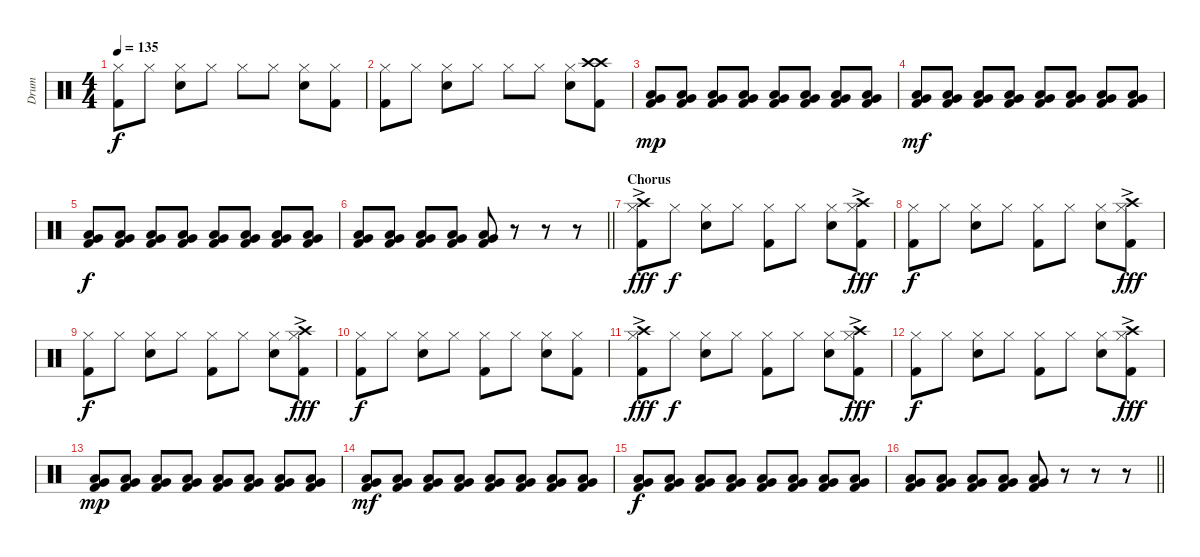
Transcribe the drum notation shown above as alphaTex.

\track ("Drum" "Drum") {instrument percussion}
\staff {score}
\articulation defaults
\ts (4 4)
\tempo 135
\clef neutral
\ks c
("Hi-Hat (closed)" "Kick (hit) 2").8{dy f} "Hi-Hat (closed)".8 ("Snare (hit) 2" "Hi-Hat (closed)").8 "Hi-Hat (closed)".8 "Hi-Hat (closed)".8 "Hi-Hat (closed)".8 ("Snare (hit) 2" "Hi-Hat (closed)").8 ("Hi-Hat (closed)" "Kick (hit) 2").8 |
("Hi-Hat (closed)" "Kick (hit) 2").8 "Hi-Hat (closed)".8 ("Snare (hit) 2" "Hi-Hat (closed)").8 "Hi-Hat (closed)".8 "Hi-Hat (closed)".8 "Hi-Hat (closed)".8 ("Snare (hit) 2" "Hi-Hat (closed)").8 ("Crash high (hit)" "Crash high (hit)" "Kick (hit) 2").8 |
("Very Low Tom (hit)" "Low Floor Tom (hit)" "Kick (hit) 2").8{dy mp} ("Very Low Tom (hit)" "Low Floor Tom (hit)" "Kick (hit) 2").8 ("Very Low Tom (hit)" "Low Floor Tom (hit)" "Kick (hit) 2").8 ("Very Low Tom (hit)" "Low Floor Tom (hit)" "Kick (hit) 2").8 ("Very Low Tom (hit)" "Low Floor Tom (hit)" "Kick (hit) 2").8 ("Very Low Tom (hit)" "Low Floor Tom (hit)" "Kick (hit) 2").8 ("Very Low Tom (hit)" "Low Floor Tom (hit)" "Kick (hit) 2").8 ("Very Low Tom (hit)" "Low Floor Tom (hit)" "Kick (hit) 2").8 |
("Very Low Tom (hit)" "Low Floor Tom (hit)" "Kick (hit) 2").8{dy mf} ("Very Low Tom (hit)" "Low Floor Tom (hit)" "Kick (hit) 2").8 ("Very Low Tom (hit)" "Low Floor Tom (hit)" "Kick (hit) 2").8 ("Very Low Tom (hit)" "Low Floor Tom (hit)" "Kick (hit) 2").8 ("Very Low Tom (hit)" "Low Floor Tom (hit)" "Kick (hit) 2").8 ("Very Low Tom (hit)" "Low Floor Tom (hit)" "Kick (hit) 2").8 ("Very Low Tom (hit)" "Low Floor Tom (hit)" "Kick (hit) 2").8 ("Very Low Tom (hit)" "Low Floor Tom (hit)" "Kick (hit) 2").8 |
("Very Low Tom (hit)" "Low Floor Tom (hit)" "Kick (hit) 2").8{dy f} ("Very Low Tom (hit)" "Low Floor Tom (hit)" "Kick (hit) 2").8 ("Very Low Tom (hit)" "Low Floor Tom (hit)" "Kick (hit) 2").8 ("Very Low Tom (hit)" "Low Floor Tom (hit)" "Kick (hit) 2").8 ("Very Low Tom (hit)" "Low Floor Tom (hit)" "Kick (hit) 2").8 ("Very Low Tom (hit)" "Low Floor Tom (hit)" "Kick (hit) 2").8 ("Very Low Tom (hit)" "Low Floor Tom (hit)" "Kick (hit) 2").8 ("Very Low Tom (hit)" "Low Floor Tom (hit)" "Kick (hit) 2").8 |
\barLineRight lightlight
("Very Low Tom (hit)" "Low Floor Tom (hit)" "Kick (hit) 2").8 ("Very Low Tom (hit)" "Low Floor Tom (hit)" "Kick (hit) 2").8 ("Very Low Tom (hit)" "Low Floor Tom (hit)" "Kick (hit) 2").8 ("Very Low Tom (hit)" "Low Floor Tom (hit)" "Kick (hit) 2").8 ("Very Low Tom (hit)" "Low Floor Tom (hit)" "Kick (hit) 2").8 r.8 r.8 r.8 |
\section ("" "Chorus")
("Crash high (hit)"{ac} "Hi-Hat (closed)" "Kick (hit) 2").8{dy fff} "Hi-Hat (closed)".8{dy f} ("Snare (hit) 2" "Hi-Hat (closed)").8 "Hi-Hat (closed)".8 ("Hi-Hat (closed)" "Kick (hit) 2").8 "Hi-Hat (closed)".8 ("Snare (hit) 2" "Hi-Hat (closed)").8 ("Crash high (hit)"{ac} "Hi-Hat (closed)" "Kick (hit) 2").8{dy fff} |
("Hi-Hat (closed)" "Kick (hit) 2").8{dy f} "Hi-Hat (closed)".8 ("Snare (hit) 2" "Hi-Hat (closed)").8 "Hi-Hat (closed)".8 ("Hi-Hat (closed)" "Kick (hit) 2").8 "Hi-Hat (closed)".8 ("Snare (hit) 2" "Hi-Hat (closed)").8 ("Crash high (hit)"{ac} "Hi-Hat (closed)" "Kick (hit) 2").8{dy fff} |
("Hi-Hat (closed)" "Kick (hit) 2").8{dy f} "Hi-Hat (closed)".8 ("Snare (hit) 2" "Hi-Hat (closed)").8 "Hi-Hat (closed)".8 ("Hi-Hat (closed)" "Kick (hit) 2").8 "Hi-Hat (closed)".8 ("Snare (hit) 2" "Hi-Hat (closed)").8 ("Crash high (hit)"{ac} "Hi-Hat (closed)" "Kick (hit) 2").8{dy fff} |
("Hi-Hat (closed)" "Kick (hit) 2").8{dy f} "Hi-Hat (closed)".8 ("Snare (hit) 2" "Hi-Hat (closed)").8 "Hi-Hat (closed)".8 ("Hi-Hat (closed)" "Kick (hit) 2").8 "Hi-Hat (closed)".8 ("Snare (hit) 2" "Hi-Hat (closed)").8 ("Hi-Hat (closed)" "Kick (hit) 2").8 |
("Crash high (hit)"{ac} "Hi-Hat (closed)" "Kick (hit) 2").8{dy fff} "Hi-Hat (closed)".8{dy f} ("Snare (hit) 2" "Hi-Hat (closed)").8 "Hi-Hat (closed)".8 ("Hi-Hat (closed)" "Kick (hit) 2").8 "Hi-Hat (closed)".8 ("Snare (hit) 2" "Hi-Hat (closed)").8 ("Crash high (hit)"{ac} "Hi-Hat (closed)" "Kick (hit) 2").8{dy fff} |
("Hi-Hat (closed)" "Kick (hit) 2").8{dy f} "Hi-Hat (closed)".8 ("Snare (hit) 2" "Hi-Hat (closed)").8 "Hi-Hat (closed)".8 ("Hi-Hat (closed)" "Kick (hit) 2").8 "Hi-Hat (closed)".8 ("Snare (hit) 2" "Hi-Hat (closed)").8 ("Crash high (hit)"{ac} "Hi-Hat (closed)" "Kick (hit) 2").8{dy fff} |
("Very Low Tom (hit)" "Low Floor Tom (hit)" "Kick (hit) 2").8{dy mp} ("Very Low Tom (hit)" "Low Floor Tom (hit)" "Kick (hit) 2").8 ("Very Low Tom (hit)" "Low Floor Tom (hit)" "Kick (hit) 2").8 ("Very Low Tom (hit)" "Low Floor Tom (hit)" "Kick (hit) 2").8 ("Very Low Tom (hit)" "Low Floor Tom (hit)" "Kick (hit) 2").8 ("Very Low Tom (hit)" "Low Floor Tom (hit)" "Kick (hit) 2").8 ("Very Low Tom (hit)" "Low Floor Tom (hit)" "Kick (hit) 2").8 ("Very Low Tom (hit)" "Low Floor Tom (hit)" "Kick (hit) 2").8 |
("Very Low Tom (hit)" "Low Floor Tom (hit)" "Kick (hit) 2").8{dy mf} ("Very Low Tom (hit)" "Low Floor Tom (hit)" "Kick (hit) 2").8 ("Very Low Tom (hit)" "Low Floor Tom (hit)" "Kick (hit) 2").8 ("Very Low Tom (hit)" "Low Floor Tom (hit)" "Kick (hit) 2").8 ("Very Low Tom (hit)" "Low Floor Tom (hit)" "Kick (hit) 2").8 ("Very Low Tom (hit)" "Low Floor Tom (hit)" "Kick (hit) 2").8 ("Very Low Tom (hit)" "Low Floor Tom (hit)" "Kick (hit) 2").8 ("Very Low Tom (hit)" "Low Floor Tom (hit)" "Kick (hit) 2").8 |
("Very Low Tom (hit)" "Low Floor Tom (hit)" "Kick (hit) 2").8{dy f} ("Very Low Tom (hit)" "Low Floor Tom (hit)" "Kick (hit) 2").8 ("Very Low Tom (hit)" "Low Floor Tom (hit)" "Kick (hit) 2").8 ("Very Low Tom (hit)" "Low Floor Tom (hit)" "Kick (hit) 2").8 ("Very Low Tom (hit)" "Low Floor Tom (hit)" "Kick (hit) 2").8 ("Very Low Tom (hit)" "Low Floor Tom (hit)" "Kick (hit) 2").8 ("Very Low Tom (hit)" "Low Floor Tom (hit)" "Kick (hit) 2").8 ("Very Low Tom (hit)" "Low Floor Tom (hit)" "Kick (hit) 2").8 |
\barLineRight lightlight
("Very Low Tom (hit)" "Low Floor Tom (hit)" "Kick (hit) 2").8 ("Very Low Tom (hit)" "Low Floor Tom (hit)" "Kick (hit) 2").8 ("Very Low Tom (hit)" "Low Floor Tom (hit)" "Kick (hit) 2").8 ("Very Low Tom (hit)" "Low Floor Tom (hit)" "Kick (hit) 2").8 ("Very Low Tom (hit)" "Low Floor Tom (hit)" "Kick (hit) 2").8 r.8 r.8 r.8
